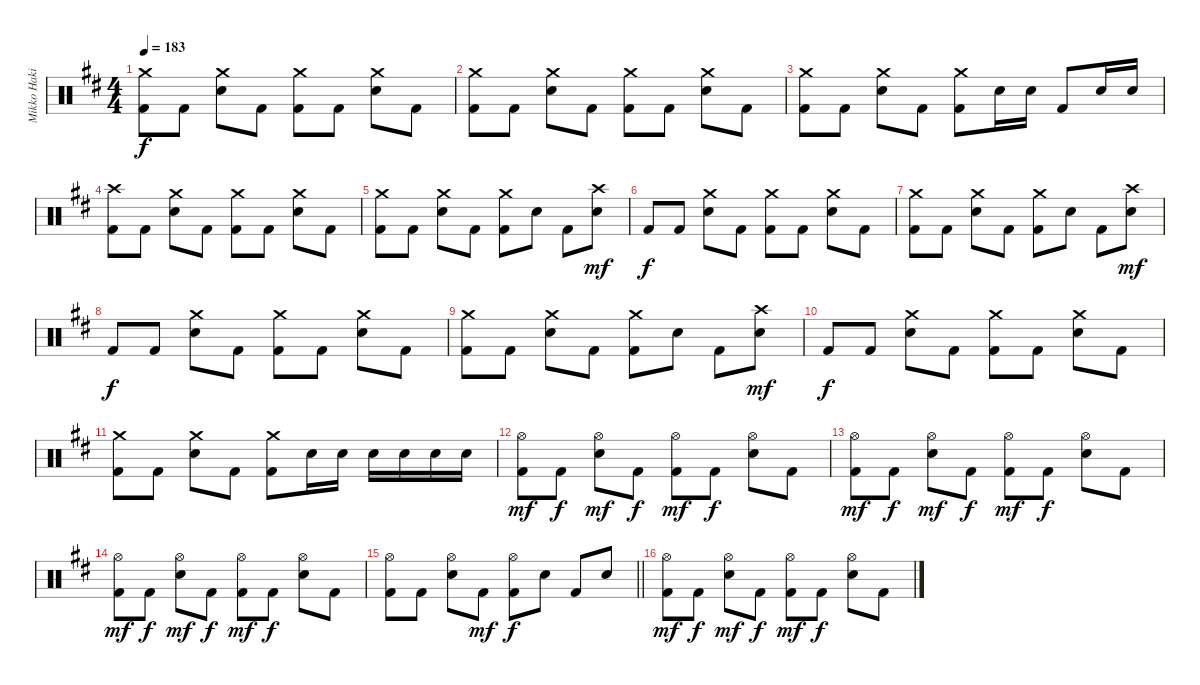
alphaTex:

\track ("Mikko Hakila - drums" "Mikko Haki") {instrument percussion}
\staff {score}
\articulation defaults
\ts (4 4)
\tempo 183
\clef neutral
\ks bminor
("Crash medium (hit)" "Kick (hit) 2").8{dy f} "Kick (hit) 2".8 ("Crash medium (hit)" "Electric Snare (hit)").8 "Kick (hit) 2".8 ("Crash medium (hit)" "Kick (hit) 2").8 "Kick (hit) 2".8 ("Crash medium (hit)" "Electric Snare (hit)").8 "Kick (hit) 2".8 |
("Crash medium (hit)" "Kick (hit) 2").8 "Kick (hit) 2".8 ("Crash medium (hit)" "Electric Snare (hit)").8 "Kick (hit) 2".8 ("Crash medium (hit)" "Kick (hit) 2").8 "Kick (hit) 2".8 ("Crash medium (hit)" "Electric Snare (hit)").8 "Kick (hit) 2".8 |
("Crash medium (hit)" "Kick (hit) 2").8 "Kick (hit) 2".8 ("Crash medium (hit)" "Electric Snare (hit)").8 "Kick (hit) 2".8 ("Crash medium (hit)" "Kick (hit) 2").8 "Electric Snare (hit)".16 "Electric Snare (hit)".16 "Kick (hit) 2".8 "Electric Snare (hit)".16 "Electric Snare (hit)".16 |
("Crash high (hit)" "Kick (hit) 2").8 "Kick (hit) 2".8 ("Crash medium (hit)" "Electric Snare (hit)").8 "Kick (hit) 2".8 ("Crash medium (hit)" "Kick (hit) 2").8 "Kick (hit) 2".8 ("Crash medium (hit)" "Electric Snare (hit)").8 "Kick (hit) 2".8 |
("Crash medium (hit)" "Kick (hit) 2").8 "Kick (hit) 2".8 ("Crash medium (hit)" "Electric Snare (hit)").8 "Kick (hit) 2".8 ("Crash medium (hit)" "Kick (hit) 2").8 "Electric Snare (hit)".8 "Kick (hit) 2".8 ("Crash high (hit)" "Electric Snare (hit)").8{dy mf} |
"Kick (hit) 2".8{dy f} "Kick (hit) 2".8 ("Crash medium (hit)" "Electric Snare (hit)").8 "Kick (hit) 2".8 ("Crash medium (hit)" "Kick (hit) 2").8 "Kick (hit) 2".8 ("Crash medium (hit)" "Electric Snare (hit)").8 "Kick (hit) 2".8 |
("Crash medium (hit)" "Kick (hit) 2").8 "Kick (hit) 2".8 ("Crash medium (hit)" "Electric Snare (hit)").8 "Kick (hit) 2".8 ("Crash medium (hit)" "Kick (hit) 2").8 "Electric Snare (hit)".8 "Kick (hit) 2".8 ("Crash high (hit)" "Electric Snare (hit)").8{dy mf} |
"Kick (hit) 2".8{dy f} "Kick (hit) 2".8 ("Crash medium (hit)" "Electric Snare (hit)").8 "Kick (hit) 2".8 ("Crash medium (hit)" "Kick (hit) 2").8 "Kick (hit) 2".8 ("Crash medium (hit)" "Electric Snare (hit)").8 "Kick (hit) 2".8 |
("Crash medium (hit)" "Kick (hit) 2").8 "Kick (hit) 2".8 ("Crash medium (hit)" "Electric Snare (hit)").8 "Kick (hit) 2".8 ("Crash medium (hit)" "Kick (hit) 2").8 "Electric Snare (hit)".8 "Kick (hit) 2".8 ("Crash high (hit)" "Electric Snare (hit)").8{dy mf} |
"Kick (hit) 2".8{dy f} "Kick (hit) 2".8 ("Crash medium (hit)" "Electric Snare (hit)").8 "Kick (hit) 2".8 ("Crash medium (hit)" "Kick (hit) 2").8 "Kick (hit) 2".8 ("Crash medium (hit)" "Electric Snare (hit)").8 "Kick (hit) 2".8 |
("Crash medium (hit)" "Kick (hit) 2").8 "Kick (hit) 2".8 ("Crash medium (hit)" "Electric Snare (hit)").8 "Kick (hit) 2".8 ("Crash medium (hit)" "Kick (hit) 2").8 "Electric Snare (hit)".16 "Electric Snare (hit)".16 "Electric Snare (hit)".16 "Electric Snare (hit)".16 "Electric Snare (hit)".16 "Electric Snare (hit)".16 |
("Hi-Hat (open)" "Kick (hit) 2").8{dy mf} "Kick (hit) 2".8{dy f} ("Hi-Hat (open)" "Electric Snare (hit)").8{dy mf} "Kick (hit) 2".8{dy f} ("Hi-Hat (open)" "Kick (hit) 2").8{dy mf} "Kick (hit) 2".8{dy f} ("Hi-Hat (open)" "Electric Snare (hit)").8 "Kick (hit) 2".8 |
("Hi-Hat (open)" "Kick (hit) 2").8{dy mf} "Kick (hit) 2".8{dy f} ("Hi-Hat (open)" "Electric Snare (hit)").8{dy mf} "Kick (hit) 2".8{dy f} ("Hi-Hat (open)" "Kick (hit) 2").8{dy mf} "Kick (hit) 2".8{dy f} ("Hi-Hat (open)" "Electric Snare (hit)").8 "Kick (hit) 2".8 |
("Hi-Hat (open)" "Kick (hit) 2").8{dy mf} "Kick (hit) 2".8{dy f} ("Hi-Hat (open)" "Electric Snare (hit)").8{dy mf} "Kick (hit) 2".8{dy f} ("Hi-Hat (open)" "Kick (hit) 2").8{dy mf} "Kick (hit) 2".8{dy f} ("Hi-Hat (open)" "Electric Snare (hit)").8 "Kick (hit) 2".8 |
\barLineRight lightlight
("Hi-Hat (open)" "Kick (hit) 2").8 "Kick (hit) 2".8 ("Hi-Hat (open)" "Electric Snare (hit)").8 "Kick (hit) 2".8{dy mf} ("Hi-Hat (open)" "Kick (hit) 2").8{dy f} "Electric Snare (hit)".8 "Kick (hit) 2".8 "Electric Snare (hit)".8 |
("Hi-Hat (open)" "Kick (hit) 2").8{dy mf} "Kick (hit) 2".8{dy f} ("Hi-Hat (open)" "Electric Snare (hit)").8{dy mf} "Kick (hit) 2".8{dy f} ("Hi-Hat (open)" "Kick (hit) 2").8{dy mf} "Kick (hit) 2".8{dy f} ("Hi-Hat (open)" "Electric Snare (hit)").8 "Kick (hit) 2".8
